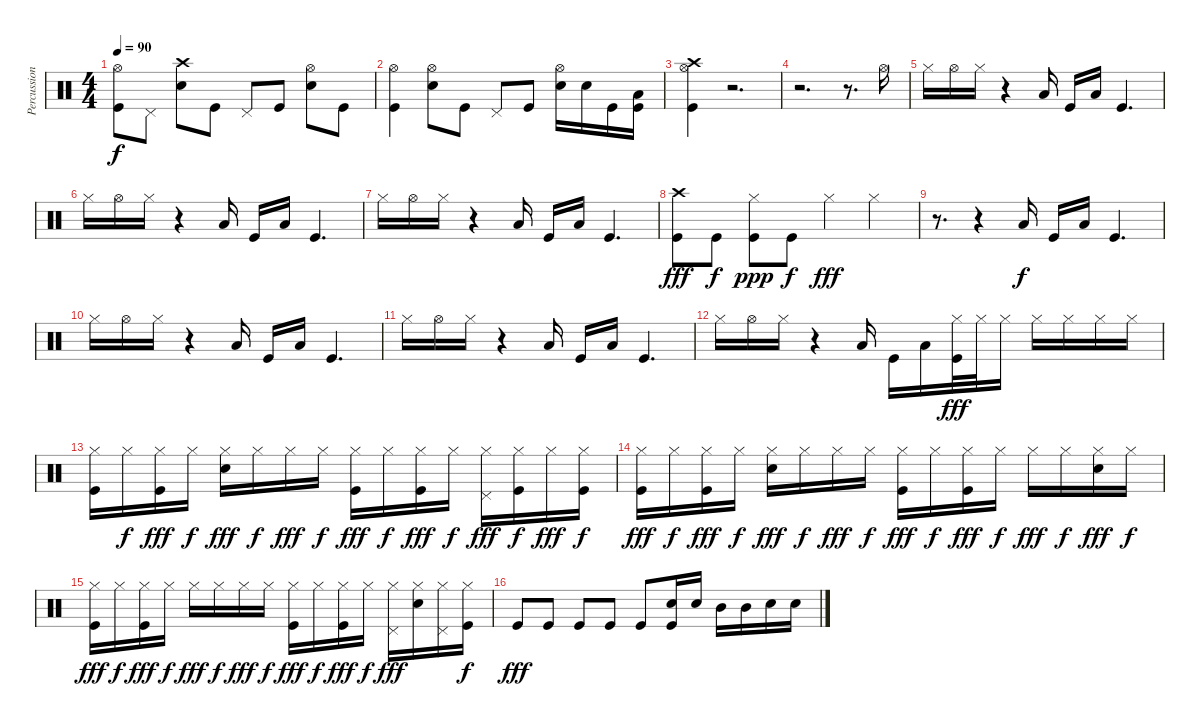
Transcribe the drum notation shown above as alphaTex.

\track ("Percussion" "Percussion") {instrument percussion}
\staff {score}
\articulation defaults
\ts (4 4)
\tempo 90
\clef neutral
\ks c
("Kick (hit)" "Hi-Hat (open)").8{dy f} "Pedal Hi-Hat (hit)".8 ("Snare (hit) 2" "Crash high (hit)").8 "Kick (hit)".8 "Pedal Hi-Hat (hit)".8 "Kick (hit)".8 ("Snare (hit) 2" "Hi-Hat (open)").8 "Kick (hit)".8 |
("Kick (hit)" "Hi-Hat (open)").4 ("Snare (hit) 2" "Hi-Hat (open)").8 "Kick (hit)".8 "Pedal Hi-Hat (hit)".8 "Kick (hit)".8 ("Snare (hit) 2" "Hi-Hat (open)").16 "Snare (hit) 2".16 "Kick (hit)".16 ("Kick (hit)" "Low Tom (hit)").16 |
("Kick (hit)" "Hi-Hat (open)" "Crash high (hit)").4 r.2{d} |
r.2{d} r.8{d} "Hi-Hat (open)".16 |
"Hi-Hat (closed)".16 "Hi-Hat (open)".16 "Hi-Hat (closed)".16 r.4 "Low Tom (hit)".16 "Kick (hit)".16 "Low Tom (hit)".16 "Kick (hit)".4{d} |
"Hi-Hat (closed)".16 "Hi-Hat (open)".16 "Hi-Hat (closed)".16 r.4 "Low Tom (hit)".16 "Kick (hit)".16 "Low Tom (hit)".16 "Kick (hit)".4{d} |
"Hi-Hat (closed)".16 "Hi-Hat (open)".16 "Hi-Hat (closed)".16 r.4 "Low Tom (hit)".16 "Kick (hit)".16 "Low Tom (hit)".16 "Kick (hit)".4{d} |
("Crash high (hit)" "Kick (hit)").8{dy fff} "Kick (hit)".8{dy f} ("Hi-Hat (closed)" "Kick (hit)").8{dy ppp} "Kick (hit)".8{dy f} "Hi-Hat (closed)".4{dy fff} "Hi-Hat (closed)".4 |
r.8{d} r.4 "Low Tom (hit)".16{dy f} "Kick (hit)".16 "Low Tom (hit)".16 "Kick (hit)".4{d} |
"Hi-Hat (closed)".16 "Hi-Hat (open)".16 "Hi-Hat (closed)".16 r.4 "Low Tom (hit)".16 "Kick (hit)".16 "Low Tom (hit)".16 "Kick (hit)".4{d} |
"Hi-Hat (closed)".16 "Hi-Hat (open)".16 "Hi-Hat (closed)".16 r.4 "Low Tom (hit)".16 "Kick (hit)".16 "Low Tom (hit)".16 "Kick (hit)".4{d} |
"Hi-Hat (closed)".16 "Hi-Hat (open)".16 "Hi-Hat (closed)".16 r.4 "Low Tom (hit)".16 "Kick (hit)".16 "Low Tom (hit)".16 ("Kick (hit)" "Hi-Hat (closed)").32{dy fff} "Hi-Hat (closed)".32 "Hi-Hat (closed)".16 "Hi-Hat (closed)".16 "Hi-Hat (closed)".16 "Hi-Hat (closed)".16 "Hi-Hat (closed)".16 |
("Hi-Hat (closed)" "Kick (hit)").16 "Hi-Hat (closed)".16{dy f} ("Hi-Hat (closed)" "Kick (hit)").16{dy fff} "Hi-Hat (closed)".16{dy f} ("Hi-Hat (closed)" "Snare (hit) 2").16{dy fff} "Hi-Hat (closed)".16{dy f} "Hi-Hat (closed)".16{dy fff} "Hi-Hat (closed)".16{dy f} ("Hi-Hat (closed)" "Kick (hit)").16{dy fff} "Hi-Hat (closed)".16{dy f} ("Hi-Hat (closed)" "Kick (hit)").16{dy fff} "Hi-Hat (closed)".16{dy f} ("Hi-Hat (closed)" "Pedal Hi-Hat (hit)").16{dy fff} ("Hi-Hat (closed)" "Kick (hit)").16{dy f} "Hi-Hat (closed)".16{dy fff} ("Hi-Hat (closed)" "Kick (hit)").16{dy f} |
("Hi-Hat (closed)" "Kick (hit)").16{dy fff} "Hi-Hat (closed)".16{dy f} ("Hi-Hat (closed)" "Kick (hit)").16{dy fff} "Hi-Hat (closed)".16{dy f} ("Hi-Hat (closed)" "Snare (hit) 2").16{dy fff} "Hi-Hat (closed)".16{dy f} "Hi-Hat (closed)".16{dy fff} "Hi-Hat (closed)".16{dy f} ("Hi-Hat (closed)" "Kick (hit)").16{dy fff} "Hi-Hat (closed)".16{dy f} ("Hi-Hat (closed)" "Kick (hit)").16{dy fff} "Hi-Hat (closed)".16{dy f} "Hi-Hat (closed)".16{dy fff} "Hi-Hat (closed)".16{dy f} ("Hi-Hat (closed)" "Snare (hit) 2").16{dy fff} "Hi-Hat (closed)".16{dy f} |
("Hi-Hat (closed)" "Kick (hit)").16{dy fff} "Hi-Hat (closed)".16{dy f} ("Hi-Hat (closed)" "Kick (hit)").16{dy fff} "Hi-Hat (closed)".16{dy f} "Hi-Hat (closed)".16{dy fff} "Hi-Hat (closed)".16{dy f} "Hi-Hat (closed)".16{dy fff} "Hi-Hat (closed)".16{dy f} ("Hi-Hat (closed)" "Kick (hit)").16{dy fff} "Hi-Hat (closed)".16{dy f} ("Hi-Hat (closed)" "Kick (hit)").16{dy fff} "Hi-Hat (closed)".16{dy f} ("Hi-Hat (closed)" "Pedal Hi-Hat (hit)").16{dy fff} ("Hi-Hat (closed)" "Snare (hit) 2").16 ("Hi-Hat (closed)" "Pedal Hi-Hat (hit)").16 ("Hi-Hat (closed)" "Kick (hit)").16{dy f} |
"Kick (hit)".8{dy fff} "Kick (hit)".8 "Kick (hit)".8 "Kick (hit)".8 "Kick (hit)".8 ("Kick (hit)" "Snare (hit) 2").16 "Snare (hit) 2".16 "Mid Tom (hit)".16 "Mid Tom (hit)".16 "Snare (hit) 2".16 "Snare (hit) 2".16
